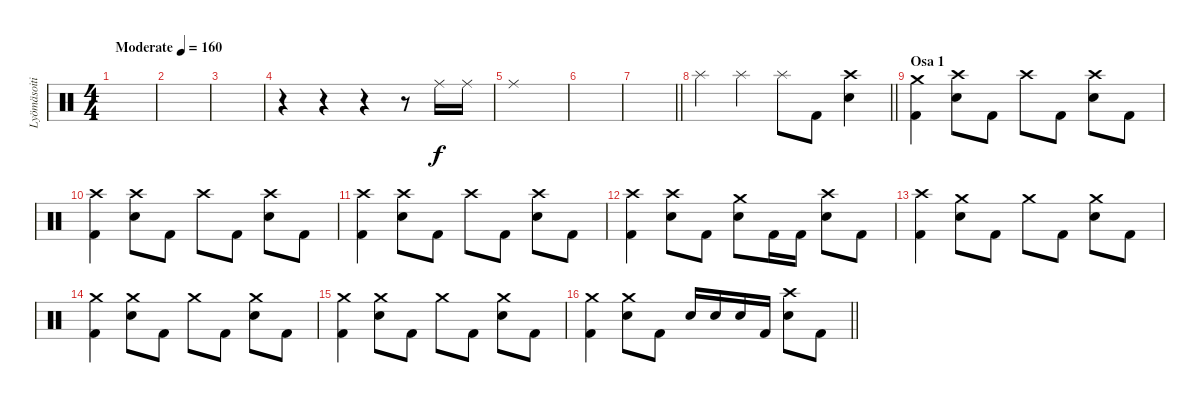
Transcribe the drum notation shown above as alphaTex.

\track ("Lyömäsoitin" "Lyömäsoiti") {instrument percussion}
\staff {score}
\articulation defaults
\ts (4 4)
\tempo (160 "Moderate")
\clef neutral
\ks c
|
|
|
r.4 r.4 r.4 r.8 "Ride (middle)".16 "Ride (middle)".16 |
"Ride (middle)".1 |
|
\barLineRight lightlight
|
\barLineRight lightlight "Splash (hit)".4 "Splash (hit)".4 "Splash (hit)".8 "Kick (hit) 2".8
("Crash high (hit)" "Snare (hit) 2").4 |
\section ("" "Osa 1")
("Crash medium (hit)" "Kick (hit) 2").4 ("Crash high (hit)" "Snare (hit) 2").8 "Kick (hit) 2".8 "Crash high (hit)".8 "Kick (hit) 2".8 ("Crash high (hit)" "Snare (hit) 2").8 "Kick (hit) 2".8 |
("Crash high (hit)" "Kick (hit) 2").4 ("Crash high (hit)" "Snare (hit) 2").8 "Kick (hit) 2".8 "Crash high (hit)".8 "Kick (hit) 2".8 ("Crash high (hit)" "Snare (hit) 2").8 "Kick (hit) 2".8 |
("Crash high (hit)" "Kick (hit) 2").4 ("Crash high (hit)" "Snare (hit) 2").8 "Kick (hit) 2".8 "Crash high (hit)".8 "Kick (hit) 2".8 ("Crash high (hit)" "Snare (hit) 2").8 "Kick (hit) 2".8 |
("Crash high (hit)" "Kick (hit) 2").4 ("Crash high (hit)" "Snare (hit) 2").8 "Kick (hit) 2".8 ("Crash medium (hit)" "Snare (hit) 2").8 "Kick (hit) 2".16 "Kick (hit) 2".16 ("Crash high (hit)" "Snare (hit) 2").8 "Kick (hit) 2".8 |
("Crash high (hit)" "Kick (hit) 2").4 ("Crash medium (hit)" "Snare (hit) 2").8 "Kick (hit) 2".8 "Crash medium (hit)".8 "Kick (hit) 2".8 ("Crash medium (hit)" "Snare (hit) 2").8 "Kick (hit) 2".8 |
("Crash medium (hit)" "Kick (hit) 2").4 ("Crash medium (hit)" "Snare (hit) 2").8 "Kick (hit) 2".8 "Crash medium (hit)".8 "Kick (hit) 2".8 ("Crash medium (hit)" "Snare (hit) 2").8 "Kick (hit) 2".8 |
("Crash medium (hit)" "Kick (hit) 2").4 ("Crash medium (hit)" "Snare (hit) 2").8 "Kick (hit) 2".8 "Crash medium (hit)".8 "Kick (hit) 2".8 ("Crash medium (hit)" "Snare (hit) 2").8 "Kick (hit) 2".8 |
\barLineRight lightlight
("Crash medium (hit)" "Kick (hit) 2").4 ("Crash medium (hit)" "Snare (hit) 2").8 "Kick (hit) 2".8 "Snare (hit) 2".16 "Snare (hit) 2".16 "Snare (hit) 2".16 "Kick (hit) 2".16 ("Crash high (hit)" "Snare (hit) 2").8 "Kick (hit) 2".8
